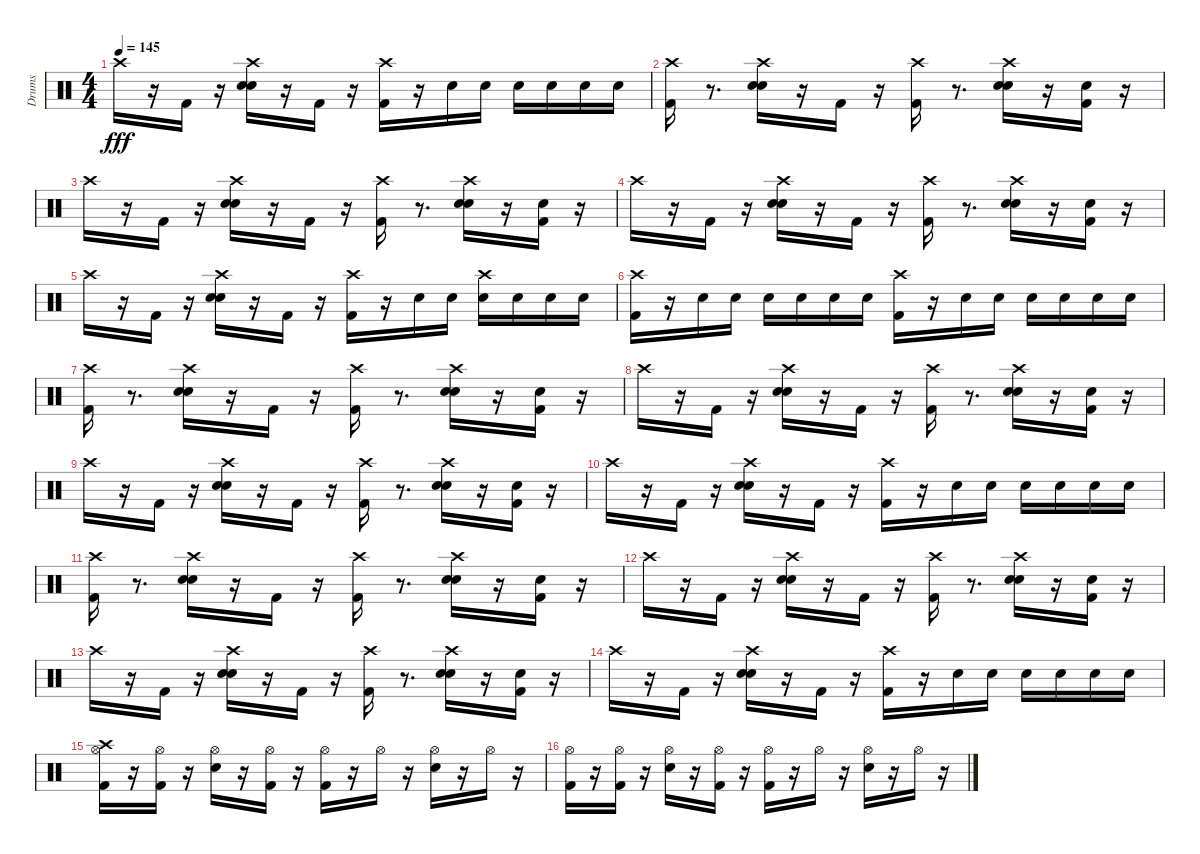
\track ("Drums" "Drums") {instrument percussion}
\staff {score}
\articulation defaults
\ts (4 4)
\tempo 145
\clef neutral
\ks c "Crash high (hit)".16{dy fff}
r.16 "Kick (hit) 2".16 r.16 ("Crash high (hit)" "Electric Snare (hit)" "Hand Clap (hit)").16 r.16 "Kick (hit) 2".16 r.16 ("Crash high (hit)" "Kick (hit) 2").16 r.16 "Electric Snare (hit)".16 "Electric Snare (hit)".16 "Electric Snare (hit)".16 "Electric Snare (hit)".16 "Electric Snare (hit)".16 "Electric Snare (hit)".16 |
("Kick (hit) 2" "Crash high (hit)").16 r.8{d} ("Crash high (hit)" "Hand Clap (hit)" "Electric Snare (hit)").16 r.16 "Kick (hit) 2".16 r.16 ("Crash high (hit)" "Kick (hit) 2").16 r.8{d} ("Crash high (hit)" "Hand Clap (hit)" "Electric Snare (hit)").16 r.16 ("Hand Clap (hit)" "Kick (hit) 2").16 r.16 |
"Crash high (hit)".16 r.16 "Kick (hit) 2".16 r.16 ("Crash high (hit)" "Hand Clap (hit)" "Electric Snare (hit)").16 r.16 "Kick (hit) 2".16 r.16 ("Crash high (hit)" "Kick (hit) 2").16 r.8{d} ("Crash high (hit)" "Hand Clap (hit)" "Electric Snare (hit)").16 r.16 ("Hand Clap (hit)" "Kick (hit) 2").16 r.16 |
"Crash high (hit)".16 r.16 "Kick (hit) 2".16 r.16 ("Crash high (hit)" "Hand Clap (hit)" "Electric Snare (hit)").16 r.16 "Kick (hit) 2".16 r.16 ("Crash high (hit)" "Kick (hit) 2").16 r.8{d} ("Crash high (hit)" "Hand Clap (hit)" "Electric Snare (hit)").16 r.16 ("Hand Clap (hit)" "Kick (hit) 2").16 r.16 |
"Crash high (hit)".16 r.16 "Kick (hit) 2".16 r.16 ("Crash high (hit)" "Electric Snare (hit)" "Hand Clap (hit)").16 r.16 "Kick (hit) 2".16 r.16 ("Crash high (hit)" "Kick (hit) 2").16 r.16 "Electric Snare (hit)".16 "Electric Snare (hit)".16 ("Crash high (hit)" "Electric Snare (hit)").16 "Electric Snare (hit)".16 "Electric Snare (hit)".16 "Electric Snare (hit)".16 |
("Kick (hit) 2" "Crash high (hit)").16 r.16 "Electric Snare (hit)".16 "Electric Snare (hit)".16 "Electric Snare (hit)".16 "Electric Snare (hit)".16 "Electric Snare (hit)".16 "Electric Snare (hit)".16 ("Kick (hit) 2" "Crash high (hit)").16 r.16 "Electric Snare (hit)".16 "Electric Snare (hit)".16 "Electric Snare (hit)".16 "Electric Snare (hit)".16 "Electric Snare (hit)".16 "Electric Snare (hit)".16 |
("Kick (hit) 2" "Crash high (hit)").16 r.8{d} ("Crash high (hit)" "Hand Clap (hit)" "Electric Snare (hit)").16 r.16 "Kick (hit) 2".16 r.16 ("Crash high (hit)" "Kick (hit) 2").16 r.8{d} ("Crash high (hit)" "Hand Clap (hit)" "Electric Snare (hit)").16 r.16 ("Hand Clap (hit)" "Kick (hit) 2").16 r.16 |
"Crash high (hit)".16 r.16 "Kick (hit) 2".16 r.16 ("Crash high (hit)" "Hand Clap (hit)" "Electric Snare (hit)").16 r.16 "Kick (hit) 2".16 r.16 ("Crash high (hit)" "Kick (hit) 2").16 r.8{d} ("Crash high (hit)" "Hand Clap (hit)" "Electric Snare (hit)").16 r.16 ("Hand Clap (hit)" "Kick (hit) 2").16 r.16 |
"Crash high (hit)".16 r.16 "Kick (hit) 2".16 r.16 ("Crash high (hit)" "Hand Clap (hit)" "Electric Snare (hit)").16 r.16 "Kick (hit) 2".16 r.16 ("Crash high (hit)" "Kick (hit) 2").16 r.8{d} ("Crash high (hit)" "Hand Clap (hit)" "Electric Snare (hit)").16 r.16 ("Hand Clap (hit)" "Kick (hit) 2").16 r.16 |
"Crash high (hit)".16 r.16 "Kick (hit) 2".16 r.16 ("Crash high (hit)" "Electric Snare (hit)" "Hand Clap (hit)").16 r.16 "Kick (hit) 2".16 r.16 ("Crash high (hit)" "Kick (hit) 2").16 r.16 "Electric Snare (hit)".16 "Electric Snare (hit)".16 "Electric Snare (hit)".16 "Electric Snare (hit)".16 "Electric Snare (hit)".16 "Electric Snare (hit)".16 |
("Kick (hit) 2" "Crash high (hit)").16 r.8{d} ("Crash high (hit)" "Hand Clap (hit)" "Electric Snare (hit)").16 r.16 "Kick (hit) 2".16 r.16 ("Crash high (hit)" "Kick (hit) 2").16 r.8{d} ("Crash high (hit)" "Hand Clap (hit)" "Electric Snare (hit)").16 r.16 ("Hand Clap (hit)" "Kick (hit) 2").16 r.16 |
"Crash high (hit)".16 r.16 "Kick (hit) 2".16 r.16 ("Crash high (hit)" "Hand Clap (hit)" "Electric Snare (hit)").16 r.16 "Kick (hit) 2".16 r.16 ("Crash high (hit)" "Kick (hit) 2").16 r.8{d} ("Crash high (hit)" "Hand Clap (hit)" "Electric Snare (hit)").16 r.16 ("Hand Clap (hit)" "Kick (hit) 2").16 r.16 |
"Crash high (hit)".16 r.16 "Kick (hit) 2".16 r.16 ("Crash high (hit)" "Hand Clap (hit)" "Electric Snare (hit)").16 r.16 "Kick (hit) 2".16 r.16 ("Crash high (hit)" "Kick (hit) 2").16 r.8{d} ("Crash high (hit)" "Hand Clap (hit)" "Electric Snare (hit)").16 r.16 ("Hand Clap (hit)" "Kick (hit) 2").16 r.16 |
"Crash high (hit)".16 r.16 "Kick (hit) 2".16 r.16 ("Crash high (hit)" "Electric Snare (hit)" "Hand Clap (hit)").16 r.16 "Kick (hit) 2".16 r.16 ("Crash high (hit)" "Kick (hit) 2").16 r.16 "Electric Snare (hit)".16 "Electric Snare (hit)".16 "Electric Snare (hit)".16 "Electric Snare (hit)".16 "Electric Snare (hit)".16 "Electric Snare (hit)".16 |
("Crash high (hit)" "Hi-Hat (open)" "Kick (hit) 2").16 r.16 ("Kick (hit) 2" "Hi-Hat (open)").16 r.16 ("Hi-Hat (open)" "Electric Snare (hit)").16 r.16 ("Kick (hit) 2" "Hi-Hat (open)").16 r.16 ("Hi-Hat (open)" "Kick (hit) 2").16 r.16 "Hi-Hat (open)".16 r.16 ("Hi-Hat (open)" "Electric Snare (hit)").16 r.16 "Hi-Hat (open)".16 r.16 |
("Hi-Hat (open)" "Kick (hit) 2").16 r.16 ("Kick (hit) 2" "Hi-Hat (open)").16 r.16 ("Hi-Hat (open)" "Electric Snare (hit)").16 r.16 ("Kick (hit) 2" "Hi-Hat (open)").16 r.16 ("Hi-Hat (open)" "Kick (hit) 2").16 r.16 "Hi-Hat (open)".16 r.16 ("Hi-Hat (open)" "Electric Snare (hit)").16 r.16 "Hi-Hat (open)".16 r.16
